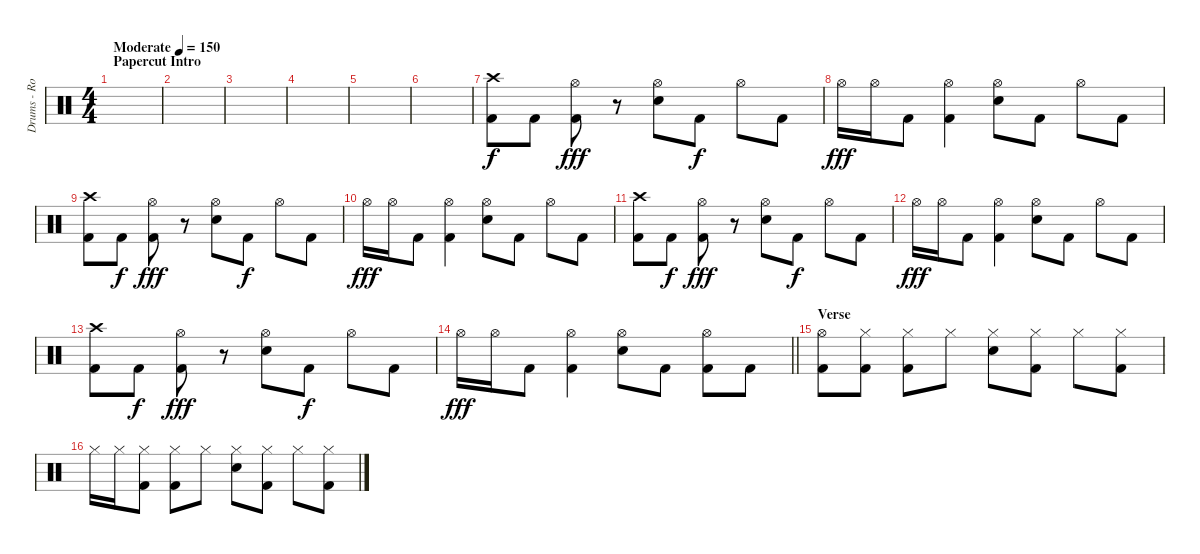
\track ("Drums - Rob Bourdon" "Drums - Ro") {instrument percussion}
\staff {score}
\articulation defaults
\ts (4 4)
\section ("" "Papercut Intro")
\tempo (150 "Moderate")
\clef neutral
\ks c
|
|
|
|
|
|
("Crash high (hit)" "Kick (hit) 2").8 "Kick (hit) 2".8{dy f} ("Hi-Hat (open)" "Kick (hit) 2").8{dy fff} r.8 ("Hi-Hat (open)" "Snare (hit) 2").8 "Kick (hit) 2".8{dy f} "Hi-Hat (open)".8 "Kick (hit) 2".8 |
"Hi-Hat (open)".16{dy fff} "Hi-Hat (open)".16 "Kick (hit) 2".8 ("Hi-Hat (open)" "Kick (hit) 2").4 ("Hi-Hat (open)" "Snare (hit) 2").8 "Kick (hit) 2".8 "Hi-Hat (open)".8 "Kick (hit) 2".8 |
("Crash high (hit)" "Kick (hit) 2").8 "Kick (hit) 2".8{dy f} ("Hi-Hat (open)" "Kick (hit) 2").8{dy fff} r.8 ("Hi-Hat (open)" "Snare (hit) 2").8 "Kick (hit) 2".8{dy f} "Hi-Hat (open)".8 "Kick (hit) 2".8 |
"Hi-Hat (open)".16{dy fff} "Hi-Hat (open)".16 "Kick (hit) 2".8 ("Hi-Hat (open)" "Kick (hit) 2").4 ("Hi-Hat (open)" "Snare (hit) 2").8 "Kick (hit) 2".8 "Hi-Hat (open)".8 "Kick (hit) 2".8 |
("Crash high (hit)" "Kick (hit) 2").8 "Kick (hit) 2".8{dy f} ("Hi-Hat (open)" "Kick (hit) 2").8{dy fff} r.8 ("Hi-Hat (open)" "Snare (hit) 2").8 "Kick (hit) 2".8{dy f} "Hi-Hat (open)".8 "Kick (hit) 2".8 |
"Hi-Hat (open)".16{dy fff} "Hi-Hat (open)".16 "Kick (hit) 2".8 ("Hi-Hat (open)" "Kick (hit) 2").4 ("Hi-Hat (open)" "Snare (hit) 2").8 "Kick (hit) 2".8 "Hi-Hat (open)".8 "Kick (hit) 2".8 |
("Crash high (hit)" "Kick (hit) 2").8 "Kick (hit) 2".8{dy f} ("Hi-Hat (open)" "Kick (hit) 2").8{dy fff} r.8 ("Hi-Hat (open)" "Snare (hit) 2").8 "Kick (hit) 2".8{dy f} "Hi-Hat (open)".8 "Kick (hit) 2".8 |
\barLineRight lightlight "Hi-Hat (open)".16{dy fff} "Hi-Hat (open)".16 "Kick (hit) 2".8
("Hi-Hat (open)" "Kick (hit) 2").4 ("Hi-Hat (open)" "Snare (hit) 2").8 "Kick (hit) 2".8 ("Hi-Hat (open)" "Kick (hit) 2").8 "Kick (hit) 2".8 |
\section ("" "Verse")
("Hi-Hat (open)" "Kick (hit) 2").8 ("Hi-Hat (closed)" "Kick (hit) 2").8 ("Hi-Hat (closed)" "Kick (hit) 2").8 "Hi-Hat (closed)".8 ("Hi-Hat (closed)" "Snare (hit) 2").8 ("Hi-Hat (closed)" "Kick (hit) 2").8 "Hi-Hat (closed)".8 ("Hi-Hat (closed)" "Kick (hit) 2").8 |
"Hi-Hat (closed)".16 "Hi-Hat (closed)".16 ("Hi-Hat (closed)" "Kick (hit) 2").8 ("Hi-Hat (closed)" "Kick (hit) 2").8 "Hi-Hat (closed)".8 ("Hi-Hat (closed)" "Snare (hit) 2").8 ("Hi-Hat (closed)" "Kick (hit) 2").8 "Hi-Hat (closed)".8 ("Hi-Hat (closed)" "Kick (hit) 2").8
